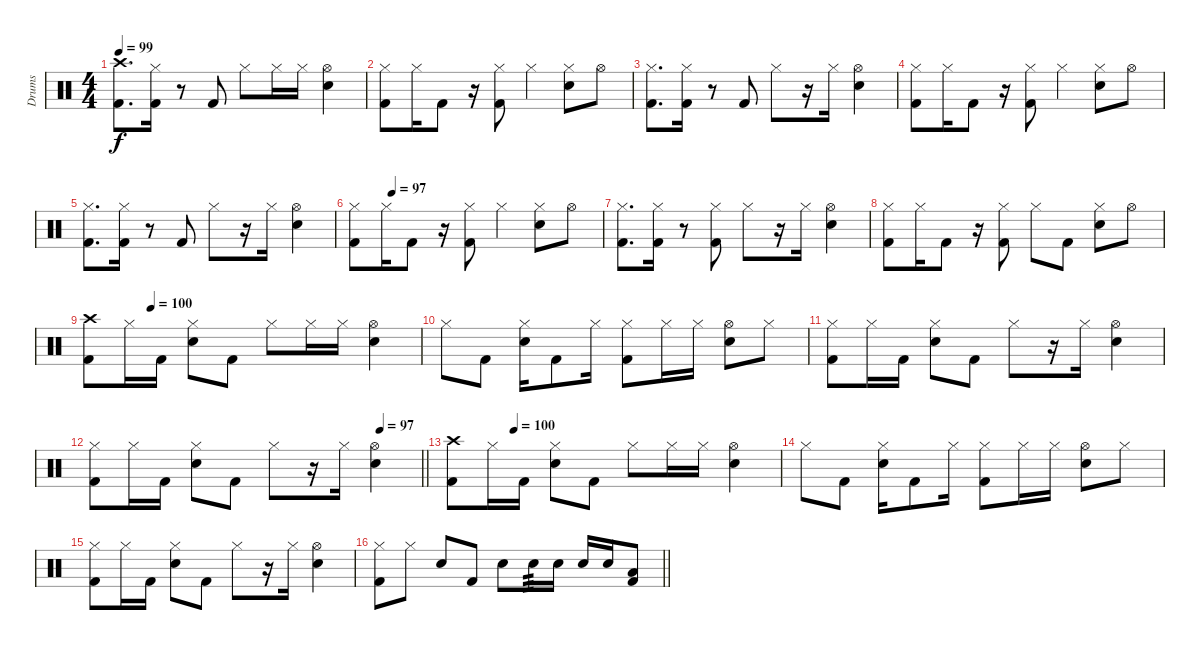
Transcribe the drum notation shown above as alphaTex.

\track ("Drums" "Drums") {instrument percussion}
\staff {score}
\articulation defaults
\ts (4 4)
\tempo 99
\clef neutral
\ks c
("Crash high (hit)" "Kick (hit) 2").8{d dy f} ("Hi-Hat (closed)" "Kick (hit) 2").16 r.8 "Kick (hit) 2".8 "Hi-Hat (closed)".8 "Hi-Hat (closed)".16 "Hi-Hat (closed)".16 ("Hi-Hat (open)" "Electric Snare (hit)").4 |
("Hi-Hat (closed)" "Kick (hit) 2").8 "Hi-Hat (closed)".16 "Kick (hit) 2".8 r.16 ("Hi-Hat (closed)" "Kick (hit) 2").8 "Hi-Hat (closed)".4 ("Hi-Hat (closed)" "Electric Snare (hit)").8 "Hi-Hat (open)".8 |
("Hi-Hat (closed)" "Kick (hit) 2").8{d} ("Hi-Hat (closed)" "Kick (hit) 2").16 r.8 "Kick (hit) 2".8 "Hi-Hat (closed)".8 r.16 "Hi-Hat (closed)".16 ("Hi-Hat (open)" "Electric Snare (hit)").4 |
("Hi-Hat (closed)" "Kick (hit) 2").8 "Hi-Hat (closed)".16 "Kick (hit) 2".8 r.16 ("Hi-Hat (closed)" "Kick (hit) 2").8 "Hi-Hat (closed)".4 ("Hi-Hat (closed)" "Electric Snare (hit)").8 "Hi-Hat (open)".8 |
("Hi-Hat (closed)" "Kick (hit) 2").8{d} ("Hi-Hat (closed)" "Kick (hit) 2").16 r.8 "Kick (hit) 2".8 "Hi-Hat (closed)".8 r.16 "Hi-Hat (closed)".16 ("Hi-Hat (open)" "Electric Snare (hit)").4 |
\tempo (97 0.15625)
("Hi-Hat (closed)" "Kick (hit) 2").8 "Hi-Hat (closed)".16 "Kick (hit) 2".8 r.16 ("Hi-Hat (closed)" "Kick (hit) 2").8 "Hi-Hat (closed)".4 ("Hi-Hat (closed)" "Electric Snare (hit)").8 "Hi-Hat (open)".8 |
("Hi-Hat (closed)" "Kick (hit) 2").8{d} ("Hi-Hat (closed)" "Kick (hit) 2").16 r.8 ("Hi-Hat (closed)" "Kick (hit) 2").8 "Hi-Hat (closed)".8 r.16 "Hi-Hat (closed)".16 ("Hi-Hat (open)" "Electric Snare (hit)").4 |
("Hi-Hat (closed)" "Kick (hit) 2").8 "Hi-Hat (closed)".16 "Kick (hit) 2".8 r.16 ("Hi-Hat (closed)" "Kick (hit) 2").8 "Hi-Hat (closed)".8 "Kick (hit) 2".8 ("Hi-Hat (closed)" "Electric Snare (hit)").8 "Hi-Hat (open)".8 |
\tempo (100 0.1875)
("Crash high (hit)" "Kick (hit) 2").8 "Hi-Hat (closed)".16 "Kick (hit) 2".16 ("Hi-Hat (closed)" "Electric Snare (hit)").8 "Kick (hit) 2".8 "Hi-Hat (closed)".8 "Hi-Hat (closed)".16 "Hi-Hat (closed)".16 ("Hi-Hat (open)" "Electric Snare (hit)").4 |
"Hi-Hat (closed)".8 "Kick (hit) 2".8 ("Hi-Hat (closed)" "Electric Snare (hit)").16 "Kick (hit) 2".8 "Hi-Hat (closed)".16 ("Hi-Hat (closed)" "Kick (hit) 2").8 "Hi-Hat (closed)".16 "Hi-Hat (closed)".16 ("Hi-Hat (open)" "Electric Snare (hit)").8 "Hi-Hat (closed)".8 |
("Hi-Hat (closed)" "Kick (hit) 2").8 "Hi-Hat (closed)".16 "Kick (hit) 2".16 ("Hi-Hat (closed)" "Electric Snare (hit)").8 "Kick (hit) 2".8 "Hi-Hat (closed)".8 r.16 "Hi-Hat (closed)".16 ("Hi-Hat (open)" "Electric Snare (hit)").4 |
\tempo (97 0.875)
\barLineRight lightlight
("Hi-Hat (closed)" "Kick (hit) 2").8 "Hi-Hat (closed)".16 "Kick (hit) 2".16 ("Hi-Hat (closed)" "Electric Snare (hit)").8 "Kick (hit) 2".8 "Hi-Hat (closed)".8 r.16 "Hi-Hat (closed)".16 ("Hi-Hat (open)" "Electric Snare (hit)").4 |
\tempo (100 0.1875)
("Crash high (hit)" "Kick (hit) 2").8 "Hi-Hat (closed)".16 "Kick (hit) 2".16 ("Hi-Hat (closed)" "Electric Snare (hit)").8 "Kick (hit) 2".8 "Hi-Hat (closed)".8 "Hi-Hat (closed)".16 "Hi-Hat (closed)".16 ("Hi-Hat (open)" "Electric Snare (hit)").4 |
"Hi-Hat (closed)".8 "Kick (hit) 2".8 ("Hi-Hat (closed)" "Electric Snare (hit)").16 "Kick (hit) 2".8 "Hi-Hat (closed)".16 ("Hi-Hat (closed)" "Kick (hit) 2").8 "Hi-Hat (closed)".16 "Hi-Hat (closed)".16 ("Hi-Hat (open)" "Electric Snare (hit)").8 "Hi-Hat (closed)".8 |
("Hi-Hat (closed)" "Kick (hit) 2").8 "Hi-Hat (closed)".16 "Kick (hit) 2".16 ("Hi-Hat (closed)" "Electric Snare (hit)").8 "Kick (hit) 2".8 "Hi-Hat (closed)".8 r.16 "Hi-Hat (closed)".16 ("Hi-Hat (open)" "Electric Snare (hit)").4 |
\barLineRight lightlight
("Hi-Hat (closed)" "Kick (hit) 2").8 "Hi-Hat (closed)".8 "Electric Snare (hit)".8 "Kick (hit) 2".8 "Electric Snare (hit)".8 "Electric Snare (hit)".16{tp 3} "Electric Snare (hit)".16 "Electric Snare (hit)".16 "Electric Snare (hit)".16 ("Low Tom (hit)" "Kick (hit) 2").8
